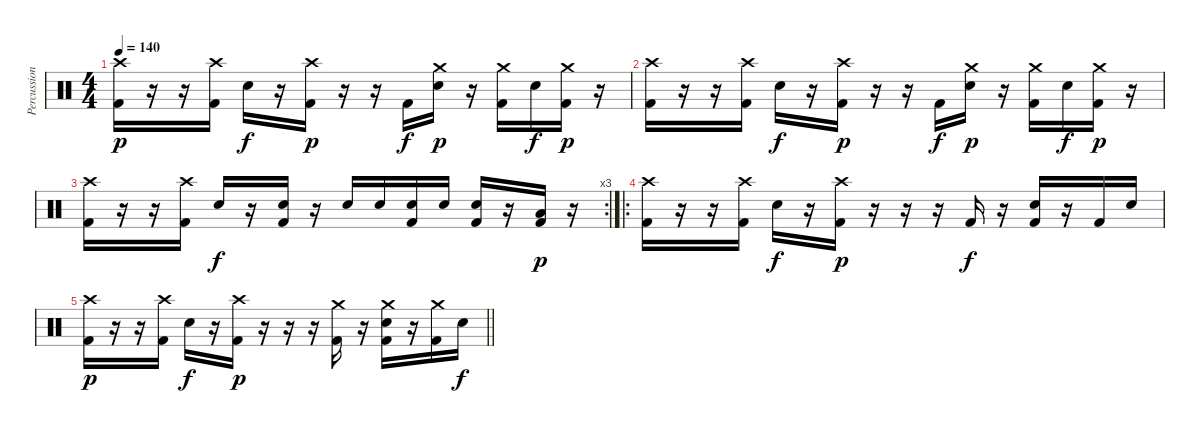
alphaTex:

\track ("Percussion" "Percussion") {instrument percussion}
\staff {score}
\articulation defaults
\ts (4 4)
\tempo 140
\clef neutral
\ks c
("Crash high (hit)" "Kick (hit) 2").16{dy p} r.16 r.16 ("Crash high (hit)" "Kick (hit) 2").16 "Electric Snare (hit)".16{dy f} r.16 ("Crash high (hit)" "Kick (hit) 2").16{dy p} r.16 r.16 "Kick (hit) 2".16{dy f} ("Crash medium (hit)" "Electric Snare (hit)").16{dy p} r.16 ("Crash medium (hit)" "Kick (hit) 2").16 "Electric Snare (hit)".16{dy f} ("Crash medium (hit)" "Kick (hit) 2").16{dy p} r.16 |
("Crash high (hit)" "Kick (hit) 2").16 r.16 r.16 ("Crash high (hit)" "Kick (hit) 2").16 "Electric Snare (hit)".16{dy f} r.16 ("Crash high (hit)" "Kick (hit) 2").16{dy p} r.16 r.16 "Kick (hit) 2".16{dy f} ("Crash medium (hit)" "Electric Snare (hit)").16{dy p} r.16 ("Crash medium (hit)" "Kick (hit) 2").16 "Electric Snare (hit)".16{dy f} ("Crash medium (hit)" "Kick (hit) 2").16{dy p} r.16 |
\rc 3
("Crash high (hit)" "Kick (hit) 2").16 r.16 r.16 ("Crash high (hit)" "Kick (hit) 2").16 "Electric Snare (hit)".16{dy f} r.16 ("Electric Snare (hit)" "Kick (hit) 2").16 r.16 "Electric Snare (hit)".16 "Snare (hit) 2".16 ("Electric Snare (hit)" "Kick (hit) 2").16 "Snare (hit) 2".16 ("Electric Snare (hit)" "Kick (hit) 2").16 r.16 ("Low Floor Tom (hit)" "Kick (hit) 2").16{dy p} r.16 |
\ro
("Crash high (hit)" "Kick (hit) 2").16 r.16 r.16 ("Crash high (hit)" "Kick (hit) 2").16 "Electric Snare (hit)".16{dy f} r.16 ("Crash high (hit)" "Kick (hit) 2").16{dy p} r.16 r.16 r.16 "Kick (hit) 2".16{dy f} r.16 ("Electric Snare (hit)" "Kick (hit) 2").16 r.16 "Kick (hit) 2".16 "Electric Snare (hit)".16 |
\barLineRight lightlight
("Crash high (hit)" "Kick (hit) 2").16{dy p} r.16 r.16 ("Crash high (hit)" "Kick (hit) 2").16 "Electric Snare (hit)".16{dy f} r.16 ("Crash high (hit)" "Kick (hit) 2").16{dy p} r.16 r.16 r.16 ("Crash medium (hit)" "Kick (hit) 2").16 r.16 ("Crash medium (hit)" "Electric Snare (hit)" "Kick (hit) 2").16 r.16 ("Crash medium (hit)" "Kick (hit) 2").16 "Electric Snare (hit)".16{dy f}
